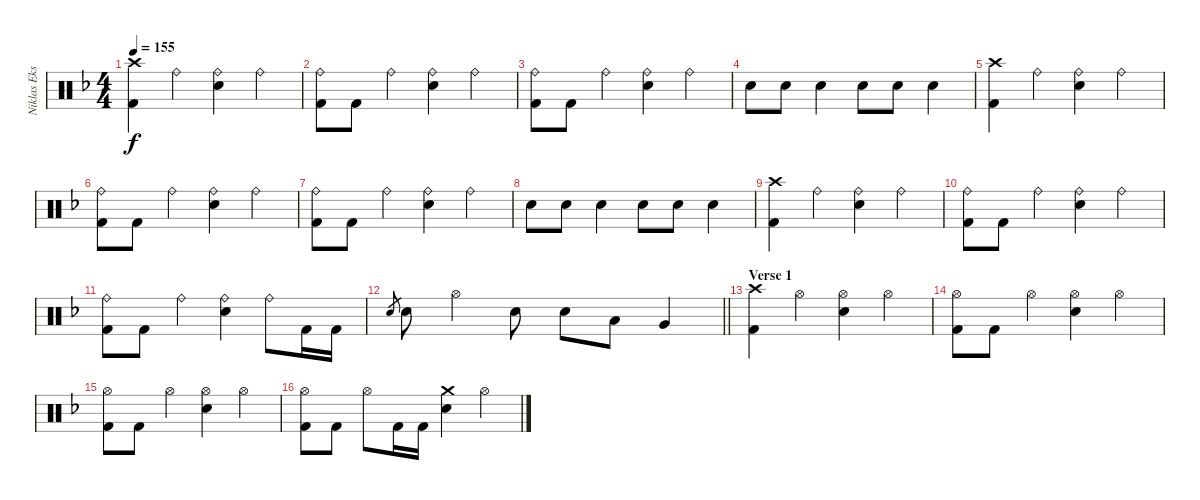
\track ("Niklas Ekstrand" "Niklas Eks") {instrument percussion}
\staff {score}
\articulation defaults
\ts (4 4)
\tempo 155
\clef neutral
\ks dminor
("Crash high (hit)" "Kick (hit) 2").4{dy f} "Ride (bell)".4 ("Ride (bell)" "Snare (hit) 2").4 "Ride (bell)".4 |
("Ride (bell)" "Kick (hit) 2").8 "Kick (hit) 2".8 "Ride (bell)".4 ("Ride (bell)" "Snare (hit) 2").4 "Ride (bell)".4 |
("Ride (bell)" "Kick (hit) 2").8 "Kick (hit) 2".8 "Ride (bell)".4 ("Ride (bell)" "Snare (hit) 2").4 "Ride (bell)".4 |
"Snare (hit) 2".8 "Snare (hit) 2".8 "Snare (hit) 2".4 "Snare (hit) 2".8 "Snare (hit) 2".8 "Snare (hit) 2".4 |
("Crash high (hit)" "Kick (hit) 2").4 "Ride (bell)".4 ("Ride (bell)" "Snare (hit) 2").4 "Ride (bell)".4 |
("Ride (bell)" "Kick (hit) 2").8 "Kick (hit) 2".8 "Ride (bell)".4 ("Ride (bell)" "Snare (hit) 2").4 "Ride (bell)".4 |
("Ride (bell)" "Kick (hit) 2").8 "Kick (hit) 2".8 "Ride (bell)".4 ("Ride (bell)" "Snare (hit) 2").4 "Ride (bell)".4 |
"Snare (hit) 2".8 "Snare (hit) 2".8 "Snare (hit) 2".4 "Snare (hit) 2".8 "Snare (hit) 2".8 "Snare (hit) 2".4 |
("Crash high (hit)" "Kick (hit) 2").4 "Ride (bell)".4 ("Ride (bell)" "Snare (hit) 2").4 "Ride (bell)".4 |
("Ride (bell)" "Kick (hit) 2").8 "Kick (hit) 2".8 "Ride (bell)".4 ("Ride (bell)" "Snare (hit) 2").4 "Ride (bell)".4 |
("Ride (bell)" "Kick (hit) 2").8 "Kick (hit) 2".8 "Ride (bell)".4 ("Ride (bell)" "Snare (hit) 2").4 "Ride (bell)".8 "Kick (hit) 2".16 "Kick (hit) 2".16 |
\barLineRight lightlight "Snare (hit) 2".8{gr} "Snare (hit) 2".8 "Hi-Hat (open)".4 "Snare (hit) 2".8 "Snare (hit) 2".8 "Low Tom (hit)".8 "Very Low Tom (hit)".4
|
\section ("" "Verse 1")
("Crash high (hit)" "Kick (hit) 2").4 "Hi-Hat (open)".4 ("Hi-Hat (open)" "Snare (hit) 2").4 "Hi-Hat (open)".4 |
("Hi-Hat (open)" "Kick (hit) 2").8 "Kick (hit) 2".8 "Hi-Hat (open)".4 ("Hi-Hat (open)" "Snare (hit) 2").4 "Hi-Hat (open)".4 |
("Hi-Hat (open)" "Kick (hit) 2").8 "Kick (hit) 2".8 "Hi-Hat (open)".4 ("Hi-Hat (open)" "Snare (hit) 2").4 "Hi-Hat (open)".4 |
("Hi-Hat (open)" "Kick (hit) 2").8 "Kick (hit) 2".8 "Hi-Hat (open)".8 "Kick (hit) 2".16 "Kick (hit) 2".16 ("Crash medium (hit)" "Snare (hit) 2").4 "Hi-Hat (open)".4
